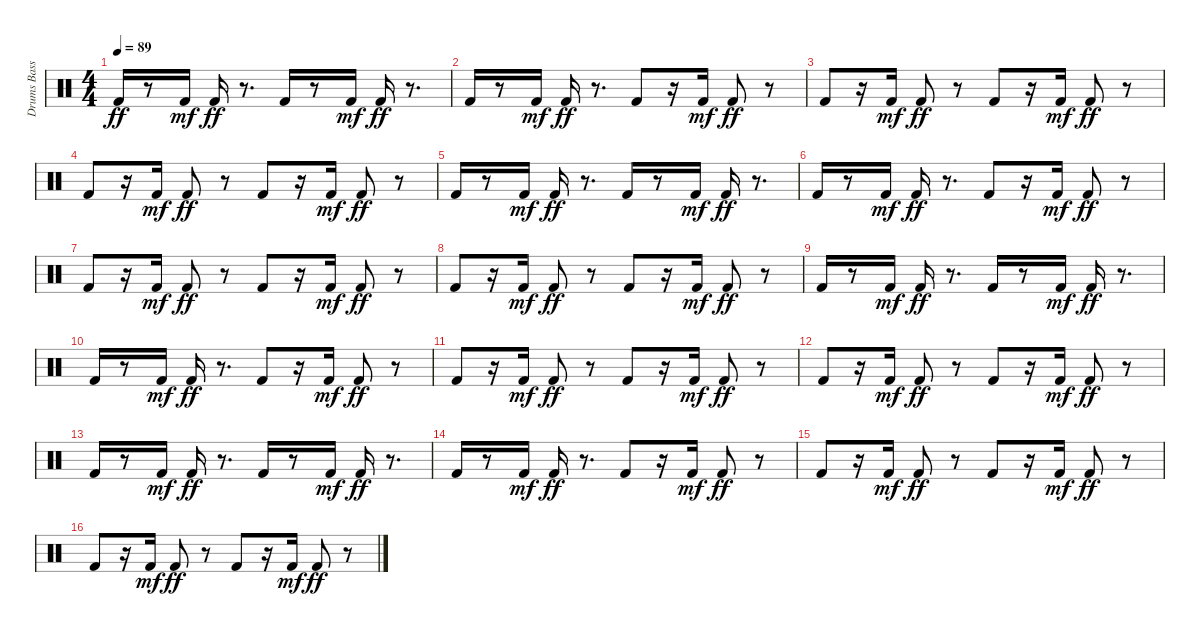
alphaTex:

\track ("Drums Bass" "Drums Bass") {instrument percussion}
\staff {score}
\articulation defaults
\ts (4 4)
\tempo 89
\clef neutral
\ks c "Kick (hit) 2".16{dy ff}
r.8 "Kick (hit) 2".16{dy mf} "Kick (hit) 2".16{dy ff} r.8{d} "Kick (hit) 2".16 r.8 "Kick (hit) 2".16{dy mf} "Kick (hit) 2".16{dy ff} r.8{d} |
"Kick (hit) 2".16 r.8 "Kick (hit) 2".16{dy mf} "Kick (hit) 2".16{dy ff} r.8{d} "Kick (hit) 2".8 r.16 "Kick (hit) 2".16{dy mf} "Kick (hit) 2".8{dy ff} r.8 |
"Kick (hit) 2".8 r.16 "Kick (hit) 2".16{dy mf} "Kick (hit) 2".8{dy ff} r.8 "Kick (hit) 2".8 r.16 "Kick (hit) 2".16{dy mf} "Kick (hit) 2".8{dy ff} r.8 |
"Kick (hit) 2".8 r.16 "Kick (hit) 2".16{dy mf} "Kick (hit) 2".8{dy ff} r.8 "Kick (hit) 2".8 r.16 "Kick (hit) 2".16{dy mf} "Kick (hit) 2".8{dy ff} r.8 |
"Kick (hit) 2".16 r.8 "Kick (hit) 2".16{dy mf} "Kick (hit) 2".16{dy ff} r.8{d} "Kick (hit) 2".16 r.8 "Kick (hit) 2".16{dy mf} "Kick (hit) 2".16{dy ff} r.8{d} |
"Kick (hit) 2".16 r.8 "Kick (hit) 2".16{dy mf} "Kick (hit) 2".16{dy ff} r.8{d} "Kick (hit) 2".8 r.16 "Kick (hit) 2".16{dy mf} "Kick (hit) 2".8{dy ff} r.8 |
"Kick (hit) 2".8 r.16 "Kick (hit) 2".16{dy mf} "Kick (hit) 2".8{dy ff} r.8 "Kick (hit) 2".8 r.16 "Kick (hit) 2".16{dy mf} "Kick (hit) 2".8{dy ff} r.8 |
"Kick (hit) 2".8 r.16 "Kick (hit) 2".16{dy mf} "Kick (hit) 2".8{dy ff} r.8 "Kick (hit) 2".8 r.16 "Kick (hit) 2".16{dy mf} "Kick (hit) 2".8{dy ff} r.8 |
"Kick (hit) 2".16 r.8 "Kick (hit) 2".16{dy mf} "Kick (hit) 2".16{dy ff} r.8{d} "Kick (hit) 2".16 r.8 "Kick (hit) 2".16{dy mf} "Kick (hit) 2".16{dy ff} r.8{d} |
"Kick (hit) 2".16 r.8 "Kick (hit) 2".16{dy mf} "Kick (hit) 2".16{dy ff} r.8{d} "Kick (hit) 2".8 r.16 "Kick (hit) 2".16{dy mf} "Kick (hit) 2".8{dy ff} r.8 |
"Kick (hit) 2".8 r.16 "Kick (hit) 2".16{dy mf} "Kick (hit) 2".8{dy ff} r.8 "Kick (hit) 2".8 r.16 "Kick (hit) 2".16{dy mf} "Kick (hit) 2".8{dy ff} r.8 |
"Kick (hit) 2".8 r.16 "Kick (hit) 2".16{dy mf} "Kick (hit) 2".8{dy ff} r.8 "Kick (hit) 2".8 r.16 "Kick (hit) 2".16{dy mf} "Kick (hit) 2".8{dy ff} r.8 |
"Kick (hit) 2".16 r.8 "Kick (hit) 2".16{dy mf} "Kick (hit) 2".16{dy ff} r.8{d} "Kick (hit) 2".16 r.8 "Kick (hit) 2".16{dy mf} "Kick (hit) 2".16{dy ff} r.8{d} |
"Kick (hit) 2".16 r.8 "Kick (hit) 2".16{dy mf} "Kick (hit) 2".16{dy ff} r.8{d} "Kick (hit) 2".8 r.16 "Kick (hit) 2".16{dy mf} "Kick (hit) 2".8{dy ff} r.8 |
"Kick (hit) 2".8 r.16 "Kick (hit) 2".16{dy mf} "Kick (hit) 2".8{dy ff} r.8 "Kick (hit) 2".8 r.16 "Kick (hit) 2".16{dy mf} "Kick (hit) 2".8{dy ff} r.8 |
"Kick (hit) 2".8 r.16 "Kick (hit) 2".16{dy mf} "Kick (hit) 2".8{dy ff} r.8 "Kick (hit) 2".8 r.16 "Kick (hit) 2".16{dy mf} "Kick (hit) 2".8{dy ff} r.8
